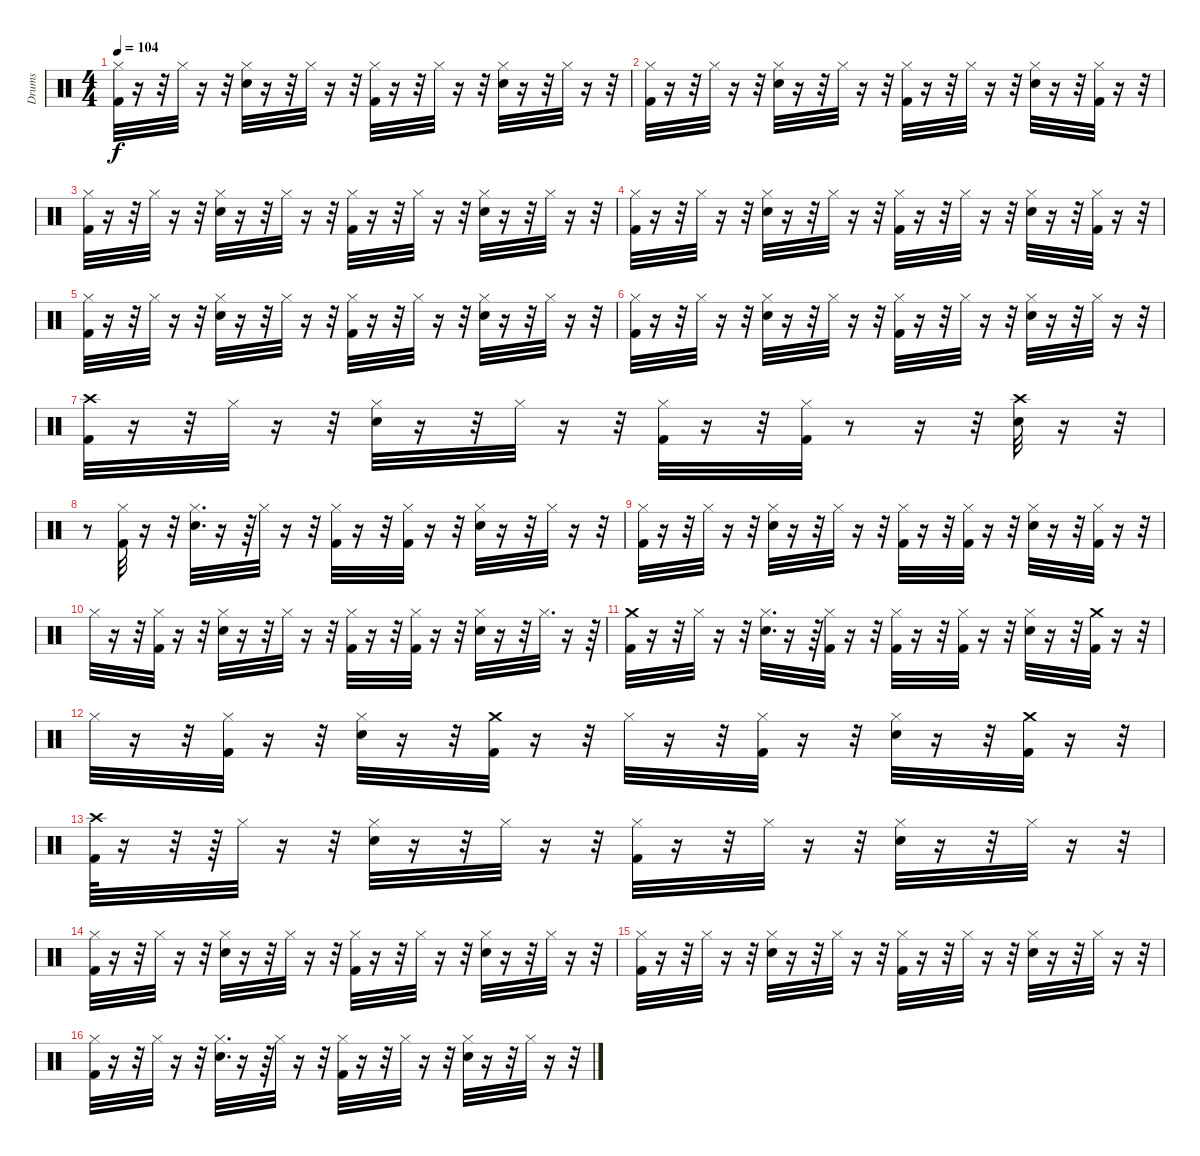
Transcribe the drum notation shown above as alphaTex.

\track ("Drums" "Drums") {instrument percussion}
\staff {score}
\articulation defaults
\ts (4 4)
\tempo 104
\clef neutral
\ks c
("Hi-Hat (closed)" "Kick (hit) 2").32{dy f} r.16 r.32 "Hi-Hat (closed)".32 r.16 r.32 ("Hi-Hat (closed)" "Snare (hit) 2").32 r.16 r.32 "Hi-Hat (closed)".32 r.16 r.32 ("Hi-Hat (closed)" "Kick (hit) 2").32 r.16 r.32 "Hi-Hat (closed)".32 r.16 r.32 ("Hi-Hat (closed)" "Snare (hit) 2").32 r.16 r.32 "Hi-Hat (closed)".32 r.16 r.32 |
("Hi-Hat (closed)" "Kick (hit) 2").32 r.16 r.32 "Hi-Hat (closed)".32 r.16 r.32 ("Hi-Hat (closed)" "Snare (hit) 2").32 r.16 r.32 "Hi-Hat (closed)".32 r.16 r.32 ("Hi-Hat (closed)" "Kick (hit) 2").32 r.16 r.32 "Hi-Hat (closed)".32 r.16 r.32 ("Hi-Hat (closed)" "Snare (hit) 2").32 r.16 r.32 ("Hi-Hat (closed)" "Kick (hit) 2").32 r.16 r.32 |
("Hi-Hat (closed)" "Kick (hit) 2").32 r.16 r.32 "Hi-Hat (closed)".32 r.16 r.32 ("Hi-Hat (closed)" "Snare (hit) 2").32 r.16 r.32 "Hi-Hat (closed)".32 r.16 r.32 ("Hi-Hat (closed)" "Kick (hit) 2").32 r.16 r.32 "Hi-Hat (closed)".32 r.16 r.32 ("Hi-Hat (closed)" "Snare (hit) 2").32 r.16 r.32 "Hi-Hat (closed)".32 r.16 r.32 |
("Hi-Hat (closed)" "Kick (hit) 2").32 r.16 r.32 "Hi-Hat (closed)".32 r.16 r.32 ("Hi-Hat (closed)" "Snare (hit) 2").32 r.16 r.32 "Hi-Hat (closed)".32 r.16 r.32 ("Hi-Hat (closed)" "Kick (hit) 2").32 r.16 r.32 "Hi-Hat (closed)".32 r.16 r.32 ("Hi-Hat (closed)" "Snare (hit) 2").32 r.16 r.32 ("Hi-Hat (closed)" "Kick (hit) 2").32 r.16 r.32 |
("Hi-Hat (closed)" "Kick (hit) 2").32 r.16 r.32 "Hi-Hat (closed)".32 r.16 r.32 ("Hi-Hat (closed)" "Snare (hit) 2").32 r.16 r.32 "Hi-Hat (closed)".32 r.16 r.32 ("Hi-Hat (closed)" "Kick (hit) 2").32 r.16 r.32 "Hi-Hat (closed)".32 r.16 r.32 ("Hi-Hat (closed)" "Snare (hit) 2").32 r.16 r.32 "Hi-Hat (closed)".32 r.16 r.32 |
("Hi-Hat (closed)" "Kick (hit) 2").32 r.16 r.32 "Hi-Hat (closed)".32 r.16 r.32 ("Hi-Hat (closed)" "Snare (hit) 2").32 r.16 r.32 "Hi-Hat (closed)".32 r.16 r.32 ("Hi-Hat (closed)" "Kick (hit) 2").32 r.16 r.32 "Hi-Hat (closed)".32 r.16 r.32 ("Hi-Hat (closed)" "Snare (hit) 2").32 r.16 r.32 "Hi-Hat (closed)".32 r.16 r.32 |
("Crash high (hit)" "Kick (hit) 2").32 r.16 r.32 "Hi-Hat (closed)".32 r.16 r.32 ("Hi-Hat (closed)" "Snare (hit) 2").32 r.16 r.32 "Hi-Hat (closed)".32 r.16 r.32 ("Hi-Hat (closed)" "Kick (hit) 2").32 r.16 r.32 ("Hi-Hat (closed)" "Kick (hit) 2").32 r.8 r.16 r.32 ("Crash high (hit)" "Snare (hit) 2").32 r.16 r.32 |
r.8 ("Hi-Hat (closed)" "Kick (hit) 2").32 r.16 r.32 ("Hi-Hat (closed)" "Snare (hit) 2").32{d} r.16 r.64 "Hi-Hat (closed)".32 r.16 r.32 ("Hi-Hat (closed)" "Kick (hit) 2").32 r.16 r.32 ("Hi-Hat (closed)" "Kick (hit) 2").32 r.16 r.32 ("Hi-Hat (closed)" "Snare (hit) 2").32 r.16 r.32 "Hi-Hat (closed)".32 r.16 r.32 |
("Hi-Hat (closed)" "Kick (hit) 2").32 r.16 r.32 "Hi-Hat (closed)".32 r.16 r.32 ("Hi-Hat (closed)" "Snare (hit) 2").32 r.16 r.32 "Hi-Hat (closed)".32 r.16 r.32 ("Hi-Hat (closed)" "Kick (hit) 2").32 r.16 r.32 ("Hi-Hat (closed)" "Kick (hit) 2").32 r.16 r.32 ("Hi-Hat (closed)" "Snare (hit) 2").32 r.16 r.32 ("Hi-Hat (closed)" "Kick (hit) 2").32 r.16 r.32 |
"Hi-Hat (closed)".32 r.16 r.32 ("Hi-Hat (closed)" "Kick (hit) 2").32 r.16 r.32 ("Hi-Hat (closed)" "Snare (hit) 2").32 r.16 r.32 "Hi-Hat (closed)".32 r.16 r.32 ("Hi-Hat (closed)" "Kick (hit) 2").32 r.16 r.32 ("Hi-Hat (closed)" "Kick (hit) 2").32 r.16 r.32 ("Hi-Hat (closed)" "Snare (hit) 2").32 r.16 r.32 "Hi-Hat (closed)".32{d} r.16 r.64 |
("Crash medium (hit)" "Kick (hit) 2").32 r.16 r.32 "Hi-Hat (closed)".32 r.16 r.32 ("Hi-Hat (closed)" "Snare (hit) 2").32{d} r.16 r.64 ("Hi-Hat (closed)" "Kick (hit) 2").32 r.16 r.32 ("Hi-Hat (closed)" "Kick (hit) 2").32 r.16 r.32 ("Hi-Hat (closed)" "Kick (hit) 2").32 r.16 r.32 ("Hi-Hat (closed)" "Snare (hit) 2").32 r.16 r.32 ("Crash medium (hit)" "Kick (hit) 2").32 r.16 r.32 |
"Hi-Hat (closed)".32 r.16 r.32 ("Hi-Hat (closed)" "Kick (hit) 2").32 r.16 r.32 ("Hi-Hat (closed)" "Snare (hit) 2").32 r.16 r.32 ("Crash medium (hit)" "Kick (hit) 2").32 r.16 r.32 "Hi-Hat (closed)".32 r.16 r.32 ("Hi-Hat (closed)" "Kick (hit) 2").32 r.16 r.32 ("Hi-Hat (closed)" "Snare (hit) 2").32 r.16 r.32 ("Crash medium (hit)" "Kick (hit) 2").32 r.16 r.32 |
("Crash high (hit)" "Kick (hit) 2").64 r.16 r.32 r.64 "Hi-Hat (closed)".32 r.16 r.32 ("Hi-Hat (closed)" "Snare (hit) 2").32 r.16 r.32 "Hi-Hat (closed)".32 r.16 r.32 ("Hi-Hat (closed)" "Kick (hit) 2").32 r.16 r.32 "Hi-Hat (closed)".32 r.16 r.32 ("Hi-Hat (closed)" "Snare (hit) 2").32 r.16 r.32 "Hi-Hat (closed)".32 r.16 r.32 |
("Hi-Hat (closed)" "Kick (hit) 2").32 r.16 r.32 "Hi-Hat (closed)".32 r.16 r.32 ("Hi-Hat (closed)" "Snare (hit) 2").32 r.16 r.32 "Hi-Hat (closed)".32 r.16 r.32 ("Hi-Hat (closed)" "Kick (hit) 2").32 r.16 r.32 "Hi-Hat (closed)".32 r.16 r.32 ("Hi-Hat (closed)" "Snare (hit) 2").32 r.16 r.32 "Hi-Hat (closed)".32 r.16 r.32 |
("Hi-Hat (closed)" "Kick (hit) 2").32 r.16 r.32 "Hi-Hat (closed)".32 r.16 r.32 ("Hi-Hat (closed)" "Snare (hit) 2").32 r.16 r.32 "Hi-Hat (closed)".32 r.16 r.32 ("Hi-Hat (closed)" "Kick (hit) 2").32 r.16 r.32 "Hi-Hat (closed)".32 r.16 r.32 ("Hi-Hat (closed)" "Snare (hit) 2").32 r.16 r.32 "Hi-Hat (closed)".32 r.16 r.32 |
("Hi-Hat (closed)" "Kick (hit) 2").32 r.16 r.32 "Hi-Hat (closed)".32 r.16 r.32 ("Hi-Hat (closed)" "Snare (hit) 2").32{d} r.16 r.64 "Hi-Hat (closed)".32 r.16 r.32 ("Hi-Hat (closed)" "Kick (hit) 2").32 r.16 r.32 "Hi-Hat (closed)".32 r.16 r.32 ("Hi-Hat (closed)" "Snare (hit) 2").32 r.16 r.32 "Hi-Hat (closed)".32 r.16 r.32
